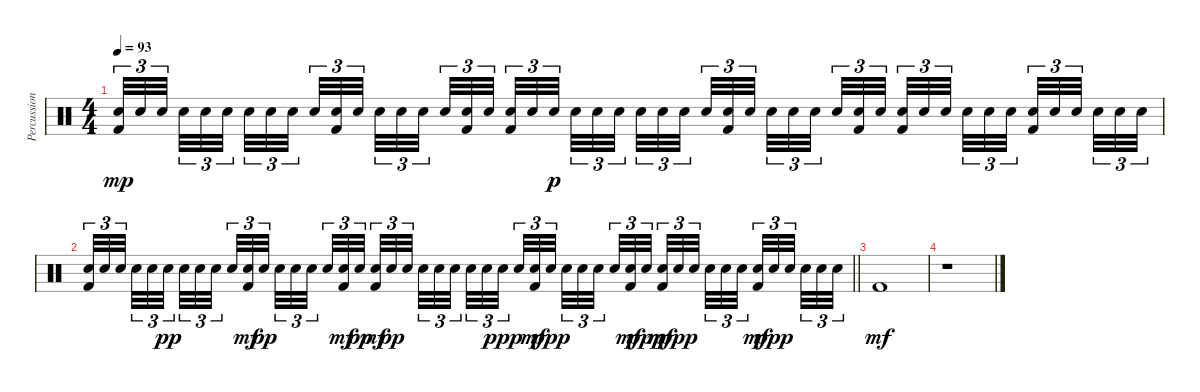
\track ("Percussion" "Percussion") {instrument percussion}
\staff {score}
\articulation defaults
\ts (4 4)
\tempo 93
\clef neutral
\ks c
("Electric Snare (hit)" "Kick (hit) 2").32{tu (3 2) dy mp} "Electric Snare (hit)".32{tu (3 2)} "Electric Snare (hit)".32{tu (3 2) beam splitsecondary} "Electric Snare (hit)".32{tu (3 2)} "Electric Snare (hit)".32{tu (3 2)} "Electric Snare (hit)".32{tu (3 2) beam splitsecondary} "Electric Snare (hit)".32{tu (3 2)} "Electric Snare (hit)".32{tu (3 2)} "Electric Snare (hit)".32{tu (3 2) beam splitsecondary} "Electric Snare (hit)".32{tu (3 2)} ("Electric Snare (hit)" "Kick (hit) 2").32{tu (3 2)} "Electric Snare (hit)".32{tu (3 2)} "Electric Snare (hit)".32{tu (3 2)} "Electric Snare (hit)".32{tu (3 2)} "Electric Snare (hit)".32{tu (3 2) beam splitsecondary} "Electric Snare (hit)".32{tu (3 2)} ("Electric Snare (hit)" "Kick (hit) 2").32{tu (3 2)} "Electric Snare (hit)".32{tu (3 2) beam splitsecondary} ("Electric Snare (hit)" "Kick (hit) 2").32{tu (3 2)} "Electric Snare (hit)".32{tu (3 2)} "Electric Snare (hit)".32{tu (3 2) dy p beam splitsecondary} "Electric Snare (hit)".32{tu (3 2)} "Electric Snare (hit)".32{tu (3 2)} "Electric Snare (hit)".32{tu (3 2)} "Electric Snare (hit)".32{tu (3 2)} "Electric Snare (hit)".32{tu (3 2)} "Electric Snare (hit)".32{tu (3 2) beam splitsecondary} "Electric Snare (hit)".32{tu (3 2)} ("Electric Snare (hit)" "Kick (hit) 2").32{tu (3 2)} "Electric Snare (hit)".32{tu (3 2) beam splitsecondary} "Electric Snare (hit)".32{tu (3 2)} "Electric Snare (hit)".32{tu (3 2)} "Electric Snare (hit)".32{tu (3 2) beam splitsecondary} "Electric Snare (hit)".32{tu (3 2)} ("Electric Snare (hit)" "Kick (hit) 2").32{tu (3 2)} "Electric Snare (hit)".32{tu (3 2)} ("Electric Snare (hit)" "Kick (hit) 2").32{tu (3 2)} "Electric Snare (hit)".32{tu (3 2)} "Electric Snare (hit)".32{tu (3 2) beam splitsecondary} "Electric Snare (hit)".32{tu (3 2)} "Electric Snare (hit)".32{tu (3 2)} "Electric Snare (hit)".32{tu (3 2) beam splitsecondary} ("Electric Snare (hit)" "Kick (hit) 2").32{tu (3 2)} "Electric Snare (hit)".32{tu (3 2)} "Electric Snare (hit)".32{tu (3 2) beam splitsecondary} "Electric Snare (hit)".32{tu (3 2)} "Electric Snare (hit)".32{tu (3 2)} "Electric Snare (hit)".32{tu (3 2)} |
\barLineRight lightlight
("Electric Snare (hit)" "Kick (hit) 2").32{tu (3 2)} "Electric Snare (hit)".32{tu (3 2)} "Electric Snare (hit)".32{tu (3 2) beam splitsecondary} "Electric Snare (hit)".32{tu (3 2)} "Electric Snare (hit)".32{tu (3 2)} "Electric Snare (hit)".32{tu (3 2) dy pp beam splitsecondary} "Electric Snare (hit)".32{tu (3 2)} "Electric Snare (hit)".32{tu (3 2)} "Electric Snare (hit)".32{tu (3 2) beam splitsecondary} "Electric Snare (hit)".32{tu (3 2)} ("Electric Snare (hit)" "Kick (hit) 2").32{tu (3 2) dy mf} "Electric Snare (hit)".32{tu (3 2) dy pp} "Electric Snare (hit)".32{tu (3 2)} "Electric Snare (hit)".32{tu (3 2)} "Electric Snare (hit)".32{tu (3 2) beam splitsecondary} "Electric Snare (hit)".32{tu (3 2)} ("Electric Snare (hit)" "Kick (hit) 2").32{tu (3 2) dy mf} "Electric Snare (hit)".32{tu (3 2) dy pp beam splitsecondary} ("Electric Snare (hit)" "Kick (hit) 2").32{tu (3 2) dy mf} "Electric Snare (hit)".32{tu (3 2) dy pp} "Electric Snare (hit)".32{tu (3 2) beam splitsecondary} "Electric Snare (hit)".32{tu (3 2)} "Electric Snare (hit)".32{tu (3 2)} "Electric Snare (hit)".32{tu (3 2)} "Electric Snare (hit)".32{tu (3 2)} "Electric Snare (hit)".32{tu (3 2)} "Electric Snare (hit)".32{tu (3 2) dy ppp beam splitsecondary} "Electric Snare (hit)".32{tu (3 2)} ("Electric Snare (hit)" "Kick (hit) 2").32{tu (3 2) dy mf} "Electric Snare (hit)".32{tu (3 2) dy ppp beam splitsecondary} "Electric Snare (hit)".32{tu (3 2)} "Electric Snare (hit)".32{tu (3 2)} "Electric Snare (hit)".32{tu (3 2) beam splitsecondary} "Electric Snare (hit)".32{tu (3 2)} ("Electric Snare (hit)" "Kick (hit) 2").32{tu (3 2) dy mf} "Electric Snare (hit)".32{tu (3 2) dy ppp} ("Electric Snare (hit)" "Kick (hit) 2").32{tu (3 2) dy mf} "Electric Snare (hit)".32{tu (3 2) dy ppp} "Electric Snare (hit)".32{tu (3 2) beam splitsecondary} "Electric Snare (hit)".32{tu (3 2)} "Electric Snare (hit)".32{tu (3 2)} "Electric Snare (hit)".32{tu (3 2) beam splitsecondary} ("Electric Snare (hit)" "Kick (hit) 2").32{tu (3 2) dy mf} "Electric Snare (hit)".32{tu (3 2) dy ppp} "Electric Snare (hit)".32{tu (3 2) beam splitsecondary} "Electric Snare (hit)".32{tu (3 2)} "Electric Snare (hit)".32{tu (3 2)} "Electric Snare (hit)".32{tu (3 2)} |
"Kick (hit) 2".1{dy mf} |
r.1
